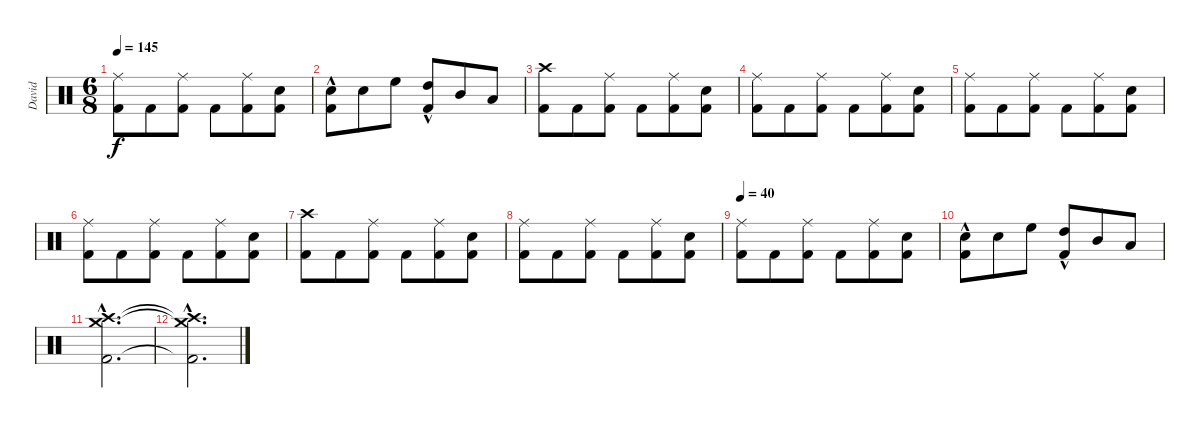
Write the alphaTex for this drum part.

\track ("David" "David") {instrument percussion}
\staff {score}
\articulation defaults
\ts (6 8)
\tempo 145
\clef neutral
\ks c
("Ride (middle)" "Kick (hit) 2").8{dy f} "Kick (hit) 2".8 ("Ride (middle)" "Kick (hit) 2").8 "Kick (hit) 2".8 ("Ride (middle)" "Kick (hit) 2").8 ("Electric Snare (hit)" "Kick (hit) 2").8 |
("Electric Snare (hit)" "Kick (hit) 2"{hac}).8 "Electric Snare (hit)".8 "High Floor Tom (hit)".8 ("High Tom (hit)" "Kick (hit) 2"{hac}).8 "Mid Tom (hit)".8 "Low Tom (hit)".8 |
("Crash high (hit)" "Kick (hit) 2").8 "Kick (hit) 2".8 ("Ride (middle)" "Kick (hit) 2").8 "Kick (hit) 2".8 ("Ride (middle)" "Kick (hit) 2").8 ("Electric Snare (hit)" "Kick (hit) 2").8 |
("Ride (middle)" "Kick (hit) 2").8 "Kick (hit) 2".8 ("Ride (middle)" "Kick (hit) 2").8 "Kick (hit) 2".8 ("Ride (middle)" "Kick (hit) 2").8 ("Electric Snare (hit)" "Kick (hit) 2").8 |
("Ride (middle)" "Kick (hit) 2").8 "Kick (hit) 2".8 ("Ride (middle)" "Kick (hit) 2").8 "Kick (hit) 2".8 ("Ride (middle)" "Kick (hit) 2").8 ("Electric Snare (hit)" "Kick (hit) 2").8 |
("Ride (middle)" "Kick (hit) 2").8 "Kick (hit) 2".8 ("Ride (middle)" "Kick (hit) 2").8 "Kick (hit) 2".8 ("Ride (middle)" "Kick (hit) 2").8 ("Electric Snare (hit)" "Kick (hit) 2").8 |
("Crash high (hit)" "Kick (hit) 2").8 "Kick (hit) 2".8 ("Ride (middle)" "Kick (hit) 2").8 "Kick (hit) 2".8 ("Ride (middle)" "Kick (hit) 2").8 ("Electric Snare (hit)" "Kick (hit) 2").8 |
("Ride (middle)" "Kick (hit) 2").8 "Kick (hit) 2".8 ("Ride (middle)" "Kick (hit) 2").8 "Kick (hit) 2".8 ("Ride (middle)" "Kick (hit) 2").8 ("Electric Snare (hit)" "Kick (hit) 2").8 |
\tempo 40
("Ride (middle)" "Kick (hit) 2").8 "Kick (hit) 2".8 ("Ride (middle)" "Kick (hit) 2").8 "Kick (hit) 2".8 ("Ride (middle)" "Kick (hit) 2").8 ("Electric Snare (hit)" "Kick (hit) 2").8 |
("Electric Snare (hit)" "Kick (hit) 2"{hac}).8 "Electric Snare (hit)".8 "High Floor Tom (hit)".8 ("High Tom (hit)" "Kick (hit) 2"{hac}).8 "Mid Tom (hit)".8 "Low Tom (hit)".8 |
("Crash medium (hit)"{hac} "Crash high (hit)"{hac} "Kick (hit) 2"{hac}).2{d} |
("Crash medium (hit)"{hac t} "Crash high (hit)"{hac t} "Kick (hit) 2"{hac t}).2{d}
